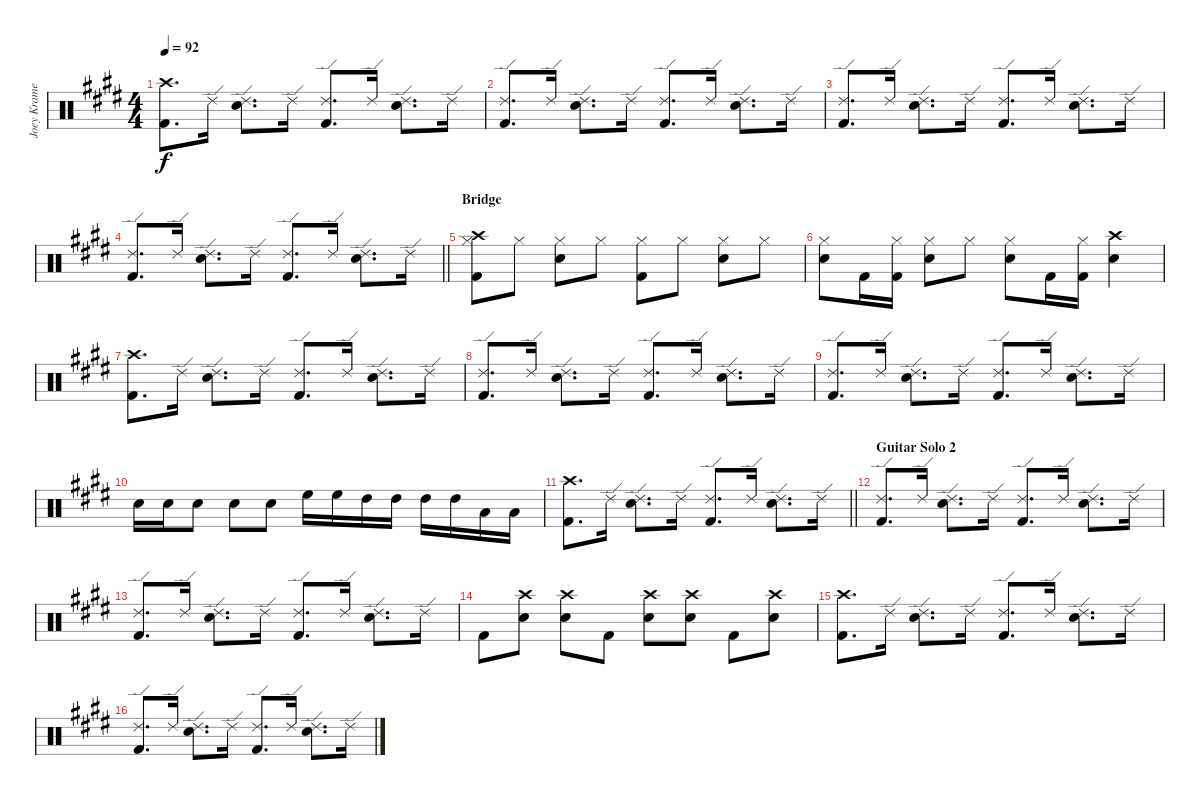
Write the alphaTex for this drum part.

\track ("Joey Kramer" "Joey Krame") {instrument percussion}
\staff {score}
\articulation defaults
\ts (4 4)
\tempo 92
\clef neutral
\ks c#minor
("Crash high (hit)" "Kick (hit) 2").8{d dy f} "Ride (edge) 2".16 ("Ride (edge) 2" "Electric Snare (hit)").8{d} "Ride (edge) 2".16 ("Ride (edge) 2" "Kick (hit) 2").8{d} "Ride (edge) 2".16 ("Ride (edge) 2" "Electric Snare (hit)").8{d} "Ride (edge) 2".16 |
\ks e
("Ride (edge) 2" "Kick (hit) 2").8{d} "Ride (edge) 2".16 ("Ride (edge) 2" "Electric Snare (hit)").8{d} "Ride (edge) 2".16 ("Ride (edge) 2" "Kick (hit) 2").8{d} "Ride (edge) 2".16 ("Ride (edge) 2" "Electric Snare (hit)").8{d} "Ride (edge) 2".16 |
("Ride (edge) 2" "Kick (hit) 2").8{d} "Ride (edge) 2".16 ("Ride (edge) 2" "Electric Snare (hit)").8{d} "Ride (edge) 2".16 ("Ride (edge) 2" "Kick (hit) 2").8{d} "Ride (edge) 2".16 ("Ride (edge) 2" "Electric Snare (hit)").8{d} "Ride (edge) 2".16 |
\barLineRight lightlight
\ks c#minor
("Ride (edge) 2" "Kick (hit) 2").8{d} "Ride (edge) 2".16 ("Ride (edge) 2" "Electric Snare (hit)").8{d} "Ride (edge) 2".16 ("Ride (edge) 2" "Kick (hit) 2").8{d} "Ride (edge) 2".16 ("Ride (edge) 2" "Electric Snare (hit)").8{d} "Ride (edge) 2".16 |
\section ("" "Bridge")
\ks e
("Crash high (hit)" "Hi-Hat (closed)" "Kick (hit) 2").8 "Hi-Hat (closed)".8 ("Hi-Hat (closed)" "Electric Snare (hit)").8 "Hi-Hat (closed)".8 ("Hi-Hat (closed)" "Kick (hit) 2").8 "Hi-Hat (closed)".8 ("Hi-Hat (closed)" "Electric Snare (hit)").8 "Hi-Hat (closed)".8 |
("Hi-Hat (closed)" "Electric Snare (hit)").8 "Kick (hit) 2".16 ("Hi-Hat (closed)" "Kick (hit) 2").16 ("Hi-Hat (closed)" "Electric Snare (hit)").8 "Hi-Hat (closed)".8 ("Hi-Hat (closed)" "Electric Snare (hit)").8 "Kick (hit) 2".16 ("Hi-Hat (closed)" "Kick (hit) 2").16 ("Crash high (hit)" "Electric Snare (hit)").4 |
("Crash high (hit)" "Kick (hit) 2").8{d} "Ride (edge) 2".16 ("Ride (edge) 2" "Electric Snare (hit)").8{d} "Ride (edge) 2".16 ("Ride (edge) 2" "Kick (hit) 2").8{d} "Ride (edge) 2".16 ("Ride (edge) 2" "Electric Snare (hit)").8{d} "Ride (edge) 2".16 |
("Ride (edge) 2" "Kick (hit) 2").8{d} "Ride (edge) 2".16 ("Ride (edge) 2" "Electric Snare (hit)").8{d} "Ride (edge) 2".16 ("Ride (edge) 2" "Kick (hit) 2").8{d} "Ride (edge) 2".16 ("Ride (edge) 2" "Electric Snare (hit)").8{d} "Ride (edge) 2".16 |
("Ride (edge) 2" "Kick (hit) 2").8{d} "Ride (edge) 2".16 ("Ride (edge) 2" "Electric Snare (hit)").8{d} "Ride (edge) 2".16 ("Ride (edge) 2" "Kick (hit) 2").8{d} "Ride (edge) 2".16 ("Ride (edge) 2" "Electric Snare (hit)").8{d} "Ride (edge) 2".16 |
"Electric Snare (hit)".16 "Electric Snare (hit)".16 "Electric Snare (hit)".8 "Electric Snare (hit)".8 "Electric Snare (hit)".8 "High Floor Tom (hit)".16 "High Floor Tom (hit)".16 "High Tom (hit)".16 "High Tom (hit)".16 "High Tom (hit)".16 "High Tom (hit)".16 "Low Tom (hit)".16 "Low Tom (hit)".16 |
\barLineRight lightlight
("Crash high (hit)" "Kick (hit) 2").8{d} "Ride (edge) 2".16 ("Ride (edge) 2" "Electric Snare (hit)").8{d} "Ride (edge) 2".16 ("Ride (edge) 2" "Kick (hit) 2").8{d} "Ride (edge) 2".16 ("Ride (edge) 2" "Electric Snare (hit)").8{d} "Ride (edge) 2".16 |
\section ("" "Guitar Solo 2")
("Ride (edge) 2" "Kick (hit) 2").8{d} "Ride (edge) 2".16 ("Ride (edge) 2" "Electric Snare (hit)").8{d} "Ride (edge) 2".16 ("Ride (edge) 2" "Kick (hit) 2").8{d} "Ride (edge) 2".16 ("Ride (edge) 2" "Electric Snare (hit)").8{d} "Ride (edge) 2".16 |
("Ride (edge) 2" "Kick (hit) 2").8{d} "Ride (edge) 2".16 ("Ride (edge) 2" "Electric Snare (hit)").8{d} "Ride (edge) 2".16 ("Ride (edge) 2" "Kick (hit) 2").8{d} "Ride (edge) 2".16 ("Ride (edge) 2" "Electric Snare (hit)").8{d} "Ride (edge) 2".16 |
"Kick (hit) 2".8 ("Crash high (hit)" "Electric Snare (hit)").8 ("Crash high (hit)" "Electric Snare (hit)").8 "Kick (hit) 2".8 ("Crash high (hit)" "Electric Snare (hit)").8 ("Crash high (hit)" "Electric Snare (hit)").8 "Kick (hit) 2".8 ("Crash high (hit)" "Electric Snare (hit)").8 |
("Crash high (hit)" "Kick (hit) 2").8{d} "Ride (edge) 2".16 ("Ride (edge) 2" "Electric Snare (hit)").8{d} "Ride (edge) 2".16 ("Ride (edge) 2" "Kick (hit) 2").8{d} "Ride (edge) 2".16 ("Ride (edge) 2" "Electric Snare (hit)").8{d} "Ride (edge) 2".16 |
("Ride (edge) 2" "Kick (hit) 2").8{d} "Ride (edge) 2".16 ("Ride (edge) 2" "Electric Snare (hit)").8{d} "Ride (edge) 2".16 ("Ride (edge) 2" "Kick (hit) 2").8{d} "Ride (edge) 2".16 ("Ride (edge) 2" "Electric Snare (hit)").8{d} "Ride (edge) 2".16
